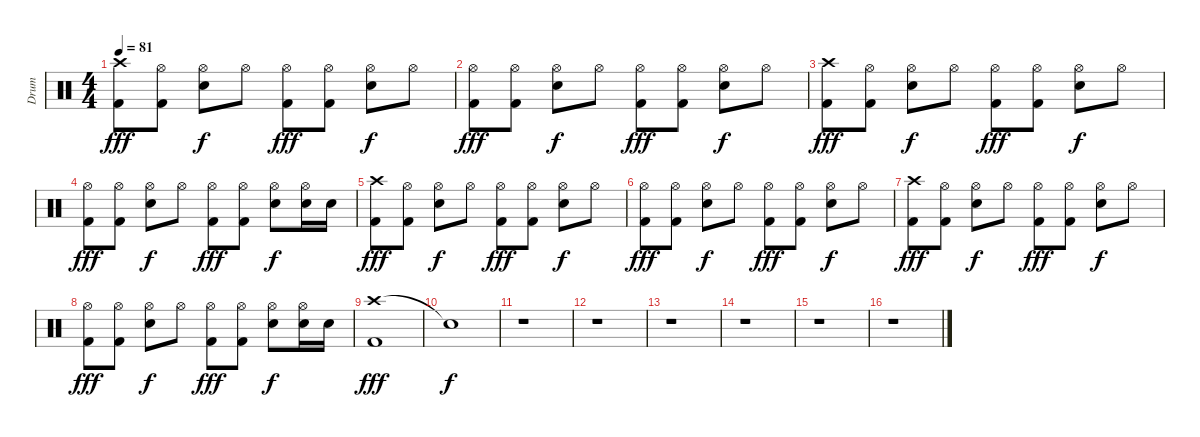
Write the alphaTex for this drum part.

\track ("Drum" "Drum") {instrument percussion}
\staff {score}
\articulation defaults
\ts (4 4)
\tempo 81
\clef neutral
\ks c
("Crash high (hit)" "Kick (hit) 2").8{dy fff} ("Hi-Hat (open)" "Kick (hit) 2").8 ("Hi-Hat (open)" "Electric Snare (hit)").8{dy f} "Hi-Hat (open)".8 ("Hi-Hat (open)" "Kick (hit) 2").8{dy fff} ("Hi-Hat (open)" "Kick (hit) 2").8 ("Hi-Hat (open)" "Electric Snare (hit)").8{dy f} "Hi-Hat (open)".8 |
("Hi-Hat (open)" "Kick (hit) 2").8{dy fff} ("Hi-Hat (open)" "Kick (hit) 2").8 ("Hi-Hat (open)" "Electric Snare (hit)").8{dy f} "Hi-Hat (open)".8 ("Hi-Hat (open)" "Kick (hit) 2").8{dy fff} ("Hi-Hat (open)" "Kick (hit) 2").8 ("Hi-Hat (open)" "Electric Snare (hit)").8{dy f} "Hi-Hat (open)".8 |
("Crash high (hit)" "Kick (hit) 2").8{dy fff} ("Hi-Hat (open)" "Kick (hit) 2").8 ("Hi-Hat (open)" "Electric Snare (hit)").8{dy f} "Hi-Hat (open)".8 ("Hi-Hat (open)" "Kick (hit) 2").8{dy fff} ("Hi-Hat (open)" "Kick (hit) 2").8 ("Hi-Hat (open)" "Electric Snare (hit)").8{dy f} "Hi-Hat (open)".8 |
("Hi-Hat (open)" "Kick (hit) 2").8{dy fff} ("Hi-Hat (open)" "Kick (hit) 2").8 ("Hi-Hat (open)" "Electric Snare (hit)").8{dy f} "Hi-Hat (open)".8 ("Hi-Hat (open)" "Kick (hit) 2").8{dy fff} ("Hi-Hat (open)" "Kick (hit) 2").8 ("Hi-Hat (open)" "Electric Snare (hit)").8{dy f} ("Hi-Hat (open)" "Electric Snare (hit)").16 "Electric Snare (hit)".16 |
("Crash high (hit)" "Kick (hit) 2").8{dy fff} ("Hi-Hat (open)" "Kick (hit) 2").8 ("Hi-Hat (open)" "Electric Snare (hit)").8{dy f} "Hi-Hat (open)".8 ("Hi-Hat (open)" "Kick (hit) 2").8{dy fff} ("Hi-Hat (open)" "Kick (hit) 2").8 ("Hi-Hat (open)" "Electric Snare (hit)").8{dy f} "Hi-Hat (open)".8 |
("Hi-Hat (open)" "Kick (hit) 2").8{dy fff} ("Hi-Hat (open)" "Kick (hit) 2").8 ("Hi-Hat (open)" "Electric Snare (hit)").8{dy f} "Hi-Hat (open)".8 ("Hi-Hat (open)" "Kick (hit) 2").8{dy fff} ("Hi-Hat (open)" "Kick (hit) 2").8 ("Hi-Hat (open)" "Electric Snare (hit)").8{dy f} "Hi-Hat (open)".8 |
("Crash high (hit)" "Kick (hit) 2").8{dy fff} ("Hi-Hat (open)" "Kick (hit) 2").8 ("Hi-Hat (open)" "Electric Snare (hit)").8{dy f} "Hi-Hat (open)".8 ("Hi-Hat (open)" "Kick (hit) 2").8{dy fff} ("Hi-Hat (open)" "Kick (hit) 2").8 ("Hi-Hat (open)" "Electric Snare (hit)").8{dy f} "Hi-Hat (open)".8 |
("Hi-Hat (open)" "Kick (hit) 2").8{dy fff} ("Hi-Hat (open)" "Kick (hit) 2").8 ("Hi-Hat (open)" "Electric Snare (hit)").8{dy f} "Hi-Hat (open)".8 ("Hi-Hat (open)" "Kick (hit) 2").8{dy fff} ("Hi-Hat (open)" "Kick (hit) 2").8 ("Hi-Hat (open)" "Electric Snare (hit)").8{dy f} ("Hi-Hat (open)" "Electric Snare (hit)").16 "Electric Snare (hit)".16 |
("Crash high (hit)" "Kick (hit) 2").1{dy fff} |
"Snare (hit)"{t}.1{dy f} |
r.1 |
r.1 |
r.1 |
r.1 |
r.1 |
r.1
